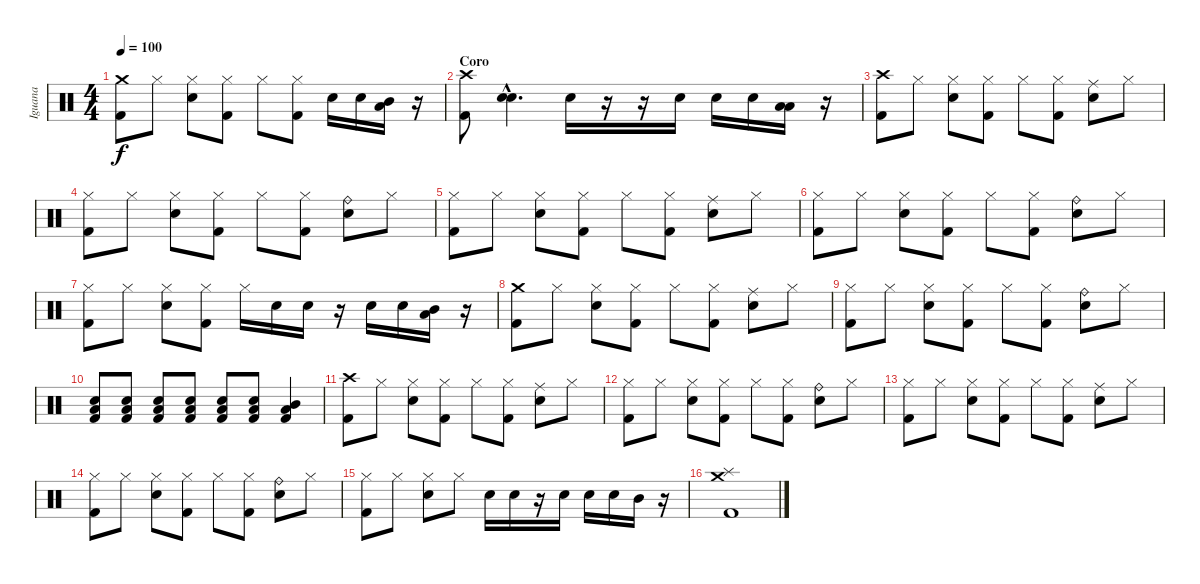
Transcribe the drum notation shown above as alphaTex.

\track ("Iguana" "Iguana") {instrument percussion}
\staff {score}
\articulation defaults
\ts (4 4)
\tempo 100
\clef neutral
\ks c
("Crash medium (hit)" "Kick (hit) 2").8{dy f} "Hi-Hat (closed)".8 ("Hi-Hat (closed)" "Electric Snare (hit)").8 ("Hi-Hat (closed)" "Kick (hit) 2").8 "Hi-Hat (closed)".8 ("Hi-Hat (closed)" "Kick (hit) 2").8 "Electric Snare (hit)".16 "Electric Snare (hit)".16 ("Low Tom (hit)" "Mid Tom (hit)").16 r.16 |
\section ("" "Coro")
("Crash high (hit)" "Kick (hit) 2").8 ("Electric Snare (hit)"{hac} "Electric Snare (hit)"{hac}).4{d} "Electric Snare (hit)".16 r.16 r.16 "Electric Snare (hit)".16 "Electric Snare (hit)".16 "Electric Snare (hit)".16 ("Low Tom (hit)" "Low Tom (hit)").16 r.16 |
("Crash high (hit)" "Kick (hit) 2").8 "Hi-Hat (closed)".8 ("Hi-Hat (closed)" "Electric Snare (hit)").8 ("Hi-Hat (closed)" "Kick (hit) 2").8 "Hi-Hat (closed)".8 ("Hi-Hat (closed)" "Kick (hit) 2").8 ("Ride (middle)" "Electric Snare (hit)").8 "Hi-Hat (closed)".8 |
("Hi-Hat (closed)" "Kick (hit) 2").8 "Hi-Hat (closed)".8 ("Hi-Hat (closed)" "Electric Snare (hit)").8 ("Hi-Hat (closed)" "Kick (hit) 2").8 "Hi-Hat (closed)".8 ("Hi-Hat (closed)" "Kick (hit) 2").8 ("Ride (bell)" "Electric Snare (hit)").8 "Hi-Hat (closed)".8 |
("Hi-Hat (closed)" "Kick (hit) 2").8 "Hi-Hat (closed)".8 ("Hi-Hat (closed)" "Electric Snare (hit)").8 ("Hi-Hat (closed)" "Kick (hit) 2").8 "Hi-Hat (closed)".8 ("Hi-Hat (closed)" "Kick (hit) 2").8 ("Ride (middle)" "Electric Snare (hit)").8 "Hi-Hat (closed)".8 |
("Hi-Hat (closed)" "Kick (hit) 2").8 "Hi-Hat (closed)".8 ("Hi-Hat (closed)" "Electric Snare (hit)").8 ("Hi-Hat (closed)" "Kick (hit) 2").8 "Hi-Hat (closed)".8 ("Hi-Hat (closed)" "Kick (hit) 2").8 ("Ride (bell)" "Electric Snare (hit)").8 "Hi-Hat (closed)".8 |
("Hi-Hat (closed)" "Kick (hit) 2").8 "Hi-Hat (closed)".8 ("Hi-Hat (closed)" "Electric Snare (hit)").8 ("Hi-Hat (closed)" "Kick (hit) 2").8 "Hi-Hat (closed)".16 "Electric Snare (hit)".16 "Electric Snare (hit)".16 r.16 "Electric Snare (hit)".16 "Electric Snare (hit)".16 ("Mid Tom (hit)" "Low Tom (hit)").16 r.16 |
("Crash medium (hit)" "Kick (hit) 2").8 "Hi-Hat (closed)".8 ("Hi-Hat (closed)" "Electric Snare (hit)").8 ("Hi-Hat (closed)" "Kick (hit) 2").8 "Hi-Hat (closed)".8 ("Hi-Hat (closed)" "Kick (hit) 2").8 ("Ride (middle)" "Electric Snare (hit)").8 "Hi-Hat (closed)".8 |
("Hi-Hat (closed)" "Kick (hit) 2").8 "Hi-Hat (closed)".8 ("Hi-Hat (closed)" "Electric Snare (hit)").8 ("Hi-Hat (closed)" "Kick (hit) 2").8 "Hi-Hat (closed)".8 ("Hi-Hat (closed)" "Kick (hit) 2").8 ("Ride (bell)" "Electric Snare (hit)").8 "Hi-Hat (closed)".8 |
("Electric Snare (hit)" "Low Tom (hit)" "Kick (hit) 2").8 ("Electric Snare (hit)" "Low Tom (hit)" "Kick (hit) 2").8 ("Electric Snare (hit)" "Low Tom (hit)" "Kick (hit) 2").8 ("Electric Snare (hit)" "Low Tom (hit)" "Kick (hit) 2").8 ("Electric Snare (hit)" "Low Tom (hit)" "Kick (hit) 2").8 ("Electric Snare (hit)" "Low Tom (hit)" "Kick (hit) 2").8 ("Mid Tom (hit)" "Low Tom (hit)" "Kick (hit) 2").4 |
("Crash high (hit)" "Kick (hit) 2").8 "Hi-Hat (closed)".8 ("Hi-Hat (closed)" "Electric Snare (hit)").8 ("Hi-Hat (closed)" "Kick (hit) 2").8 "Hi-Hat (closed)".8 ("Hi-Hat (closed)" "Kick (hit) 2").8 ("Ride (middle)" "Electric Snare (hit)").8 "Hi-Hat (closed)".8 |
("Hi-Hat (closed)" "Kick (hit) 2").8 "Hi-Hat (closed)".8 ("Hi-Hat (closed)" "Electric Snare (hit)").8 ("Hi-Hat (closed)" "Kick (hit) 2").8 "Hi-Hat (closed)".8 ("Hi-Hat (closed)" "Kick (hit) 2").8 ("Ride (bell)" "Electric Snare (hit)").8 "Hi-Hat (closed)".8 |
("Hi-Hat (closed)" "Kick (hit) 2").8 "Hi-Hat (closed)".8 ("Hi-Hat (closed)" "Electric Snare (hit)").8 ("Hi-Hat (closed)" "Kick (hit) 2").8 "Hi-Hat (closed)".8 ("Hi-Hat (closed)" "Kick (hit) 2").8 ("Ride (middle)" "Electric Snare (hit)").8 "Hi-Hat (closed)".8 |
("Hi-Hat (closed)" "Kick (hit) 2").8 "Hi-Hat (closed)".8 ("Hi-Hat (closed)" "Electric Snare (hit)").8 ("Hi-Hat (closed)" "Kick (hit) 2").8 "Hi-Hat (closed)".8 ("Hi-Hat (closed)" "Kick (hit) 2").8 ("Ride (bell)" "Electric Snare (hit)").8 "Hi-Hat (closed)".8 |
("Hi-Hat (closed)" "Kick (hit) 2").8 "Hi-Hat (closed)".8 ("Hi-Hat (closed)" "Electric Snare (hit)").8 "Hi-Hat (closed)".8 "Electric Snare (hit)".16 "Electric Snare (hit)".16 r.16 "Electric Snare (hit)".16 "Electric Snare (hit)".16 "Electric Snare (hit)".16 "Mid Tom (hit)".16 r.16 |
("Crash medium (hit)" "Splash (hit)" "Kick (hit) 2").1
